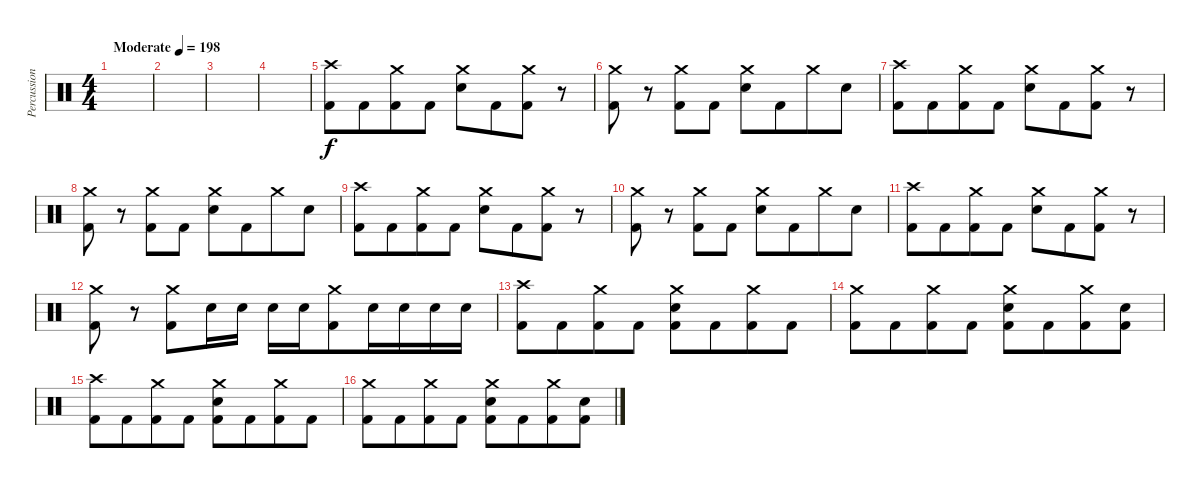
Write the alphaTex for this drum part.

\track ("Percussion" "Percussion") {instrument percussion}
\staff {score}
\articulation defaults
\ts (4 4)
\section ("" "")
\tempo (198 "Moderate")
\clef neutral
\ks c
|
|
|
|
("Crash high (hit)" "Kick (hit) 2").8 "Kick (hit) 2".8{beam merge} ("Crash medium (hit)" "Kick (hit) 2").8 "Kick (hit) 2".8 ("Crash medium (hit)" "Electric Snare (hit)").8 "Kick (hit) 2".8{beam merge} ("Crash medium (hit)" "Kick (hit) 2").8 r.8 |
("Crash medium (hit)" "Kick (hit) 2").8 r.8{beam merge} ("Crash medium (hit)" "Kick (hit) 2").8 "Kick (hit) 2".8 ("Crash medium (hit)" "Electric Snare (hit)").8 "Kick (hit) 2".8{beam merge} "Crash medium (hit)".8 "Electric Snare (hit)".8 |
("Crash high (hit)" "Kick (hit) 2").8 "Kick (hit) 2".8{beam merge} ("Crash medium (hit)" "Kick (hit) 2").8 "Kick (hit) 2".8 ("Crash medium (hit)" "Electric Snare (hit)").8 "Kick (hit) 2".8{beam merge} ("Crash medium (hit)" "Kick (hit) 2").8 r.8 |
("Crash medium (hit)" "Kick (hit) 2").8 r.8{beam merge} ("Crash medium (hit)" "Kick (hit) 2").8 "Kick (hit) 2".8 ("Crash medium (hit)" "Electric Snare (hit)").8 "Kick (hit) 2".8{beam merge} "Crash medium (hit)".8 "Electric Snare (hit)".8 |
("Crash high (hit)" "Kick (hit) 2").8 "Kick (hit) 2".8{beam merge} ("Crash medium (hit)" "Kick (hit) 2").8 "Kick (hit) 2".8 ("Crash medium (hit)" "Electric Snare (hit)").8 "Kick (hit) 2".8{beam merge} ("Crash medium (hit)" "Kick (hit) 2").8 r.8 |
("Crash medium (hit)" "Kick (hit) 2").8 r.8{beam merge} ("Crash medium (hit)" "Kick (hit) 2").8 "Kick (hit) 2".8 ("Crash medium (hit)" "Electric Snare (hit)").8 "Kick (hit) 2".8{beam merge} "Crash medium (hit)".8 "Electric Snare (hit)".8 |
("Crash high (hit)" "Kick (hit) 2").8 "Kick (hit) 2".8{beam merge} ("Crash medium (hit)" "Kick (hit) 2").8 "Kick (hit) 2".8 ("Crash medium (hit)" "Electric Snare (hit)").8 "Kick (hit) 2".8{beam merge} ("Crash medium (hit)" "Kick (hit) 2").8 r.8 |
("Crash medium (hit)" "Kick (hit) 2").8 r.8{beam merge} ("Crash medium (hit)" "Kick (hit) 2").8{beam merge} "Electric Snare (hit)".16 "Electric Snare (hit)".16 "Electric Snare (hit)".16 "Electric Snare (hit)".16{beam merge} ("Crash medium (hit)" "Kick (hit) 2").8{beam merge} "Electric Snare (hit)".16 "Electric Snare (hit)".16 "Electric Snare (hit)".16 "Electric Snare (hit)".16 |
("Crash high (hit)" "Kick (hit) 2").8 "Kick (hit) 2".8{beam merge} ("Crash medium (hit)" "Kick (hit) 2").8 "Kick (hit) 2".8 ("Crash medium (hit)" "Electric Snare (hit)" "Kick (hit) 2").8 "Kick (hit) 2".8{beam merge} ("Crash medium (hit)" "Kick (hit) 2").8 "Kick (hit) 2".8 |
("Crash medium (hit)" "Kick (hit) 2").8 "Kick (hit) 2".8{beam merge} ("Crash medium (hit)" "Kick (hit) 2").8 "Kick (hit) 2".8 ("Crash medium (hit)" "Electric Snare (hit)" "Kick (hit) 2").8 "Kick (hit) 2".8{beam merge} ("Crash medium (hit)" "Kick (hit) 2").8 ("Electric Snare (hit)" "Kick (hit) 2").8 |
("Crash high (hit)" "Kick (hit) 2").8 "Kick (hit) 2".8{beam merge} ("Crash medium (hit)" "Kick (hit) 2").8 "Kick (hit) 2".8 ("Crash medium (hit)" "Electric Snare (hit)" "Kick (hit) 2").8 "Kick (hit) 2".8{beam merge} ("Crash medium (hit)" "Kick (hit) 2").8 "Kick (hit) 2".8 |
("Crash medium (hit)" "Kick (hit) 2").8 "Kick (hit) 2".8{beam merge} ("Crash medium (hit)" "Kick (hit) 2").8 "Kick (hit) 2".8 ("Crash medium (hit)" "Electric Snare (hit)" "Kick (hit) 2").8 "Kick (hit) 2".8{beam merge} ("Crash medium (hit)" "Kick (hit) 2").8 ("Electric Snare (hit)" "Kick (hit) 2").8
